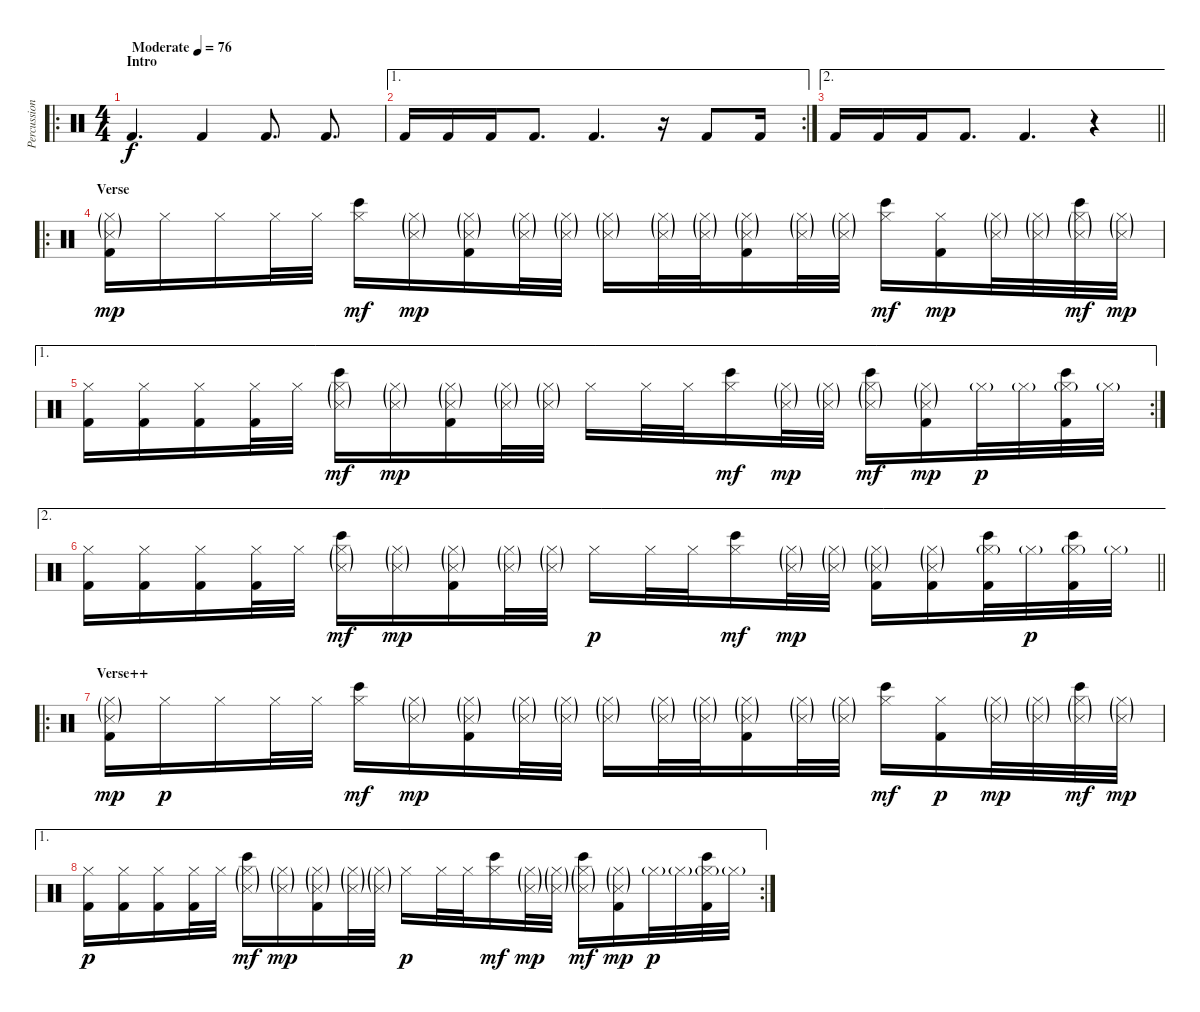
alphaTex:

\track ("Percussion" "Percussion") {instrument percussion}
\staff {score}
\articulation defaults
\ro
\ts (4 4)
\section ("" "Intro")
\tempo (76 "Moderate")
\clef neutral
\ks c "Kick (hit) 2".4{d dy f} "Kick (hit) 2".4 "Kick (hit) 2".8{d} "Kick (hit) 2".8{d}
|
\ae 1
\rc 2 "Kick (hit) 2".16 "Kick (hit) 2".16 "Kick (hit) 2".16 "Kick (hit) 2".8{d} "Kick (hit) 2".4{d}
r.16 "Kick (hit) 2".8 "Kick (hit) 2".16 |
\ae 2
\barLineRight lightlight "Kick (hit) 2".16 "Kick (hit) 2".16 "Kick (hit) 2".16 "Kick (hit) 2".8{d} "Kick (hit) 2".4{d}
r.4 |
\ro
\section ("" "Verse")
("Hi-Hat (closed)"{g} "Snare (side stick) 3"{g} "Kick (hit) 2").16{dy mp} "Hi-Hat (closed)".16 "Hi-Hat (closed)".16 "Hi-Hat (closed)".32 "Hi-Hat (closed)".32 ("Hi-Hat (closed)" "Bongo High (hit)").16{dy mf} ("Hi-Hat (closed)"{g} "Snare (side stick) 3"{g}).16{dy mp} ("Hi-Hat (closed)"{g} "Snare (side stick) 3"{g} "Kick (hit) 2").16 ("Hi-Hat (closed)"{g} "Snare (side stick) 3"{g}).32 ("Hi-Hat (closed)"{g} "Snare (side stick) 3"{g}).32 ("Hi-Hat (closed)"{g} "Snare (side stick) 3"{g}).16 ("Hi-Hat (closed)"{g} "Snare (side stick) 3"{g}).32 ("Hi-Hat (closed)"{g} "Snare (side stick) 3"{g}).32 ("Hi-Hat (closed)"{g} "Snare (side stick) 3"{g} "Kick (hit) 2").16 ("Hi-Hat (closed)"{g} "Snare (side stick) 3"{g}).32 ("Hi-Hat (closed)"{g} "Snare (side stick) 3"{g}).32 ("Hi-Hat (closed)" "Bongo High (hit)").16{dy mf} ("Hi-Hat (closed)" "Kick (hit) 2").16{dy mp} ("Hi-Hat (closed)"{g} "Snare (side stick) 3"{g}).32 ("Hi-Hat (closed)"{g} "Snare (side stick) 3"{g}).32 ("Hi-Hat (closed)"{g} "Snare (side stick) 3"{g} "Bongo High (hit)").32{dy mf} ("Hi-Hat (closed)"{g} "Snare (side stick) 3"{g}).32{dy mp} |
\ae 1
\rc 2
("Hi-Hat (closed)" "Kick (hit) 2").16 ("Hi-Hat (closed)" "Kick (hit) 2").16 ("Hi-Hat (closed)" "Kick (hit) 2").16 ("Hi-Hat (closed)" "Kick (hit) 2").32 "Hi-Hat (closed)".32 ("Hi-Hat (closed)"{g} "Snare (side stick) 3"{g} "Bongo High (hit)").16{dy mf} ("Hi-Hat (closed)"{g} "Snare (side stick) 3"{g}).16{dy mp} ("Hi-Hat (closed)"{g} "Snare (side stick) 3"{g} "Kick (hit) 2").16 ("Hi-Hat (closed)"{g} "Snare (side stick) 3"{g}).32 ("Hi-Hat (closed)"{g} "Snare (side stick) 3"{g}).32 "Hi-Hat (closed)".16 "Hi-Hat (closed)".32 "Hi-Hat (closed)".32 ("Hi-Hat (closed)" "Bongo High (hit)").16{dy mf} ("Hi-Hat (closed)"{g} "Snare (side stick) 3"{g}).32{dy mp} ("Hi-Hat (closed)"{g} "Snare (side stick) 3"{g}).32 ("Hi-Hat (closed)"{g} "Snare (side stick) 3"{g} "Bongo High (hit)").16{dy mf} ("Hi-Hat (closed)"{g} "Snare (side stick) 3"{g} "Kick (hit) 2").16{dy mp} "Hi-Hat (closed)"{g}.32{dy p} "Hi-Hat (closed)"{g}.32 ("Hi-Hat (closed)"{g} "Bongo High (hit)" "Kick (hit) 2").32 "Hi-Hat (closed)"{g}.32 |
\ae 2
\barLineRight lightlight
("Hi-Hat (closed)" "Kick (hit) 2").16 ("Hi-Hat (closed)" "Kick (hit) 2").16 ("Hi-Hat (closed)" "Kick (hit) 2").16 ("Hi-Hat (closed)" "Kick (hit) 2").32 "Hi-Hat (closed)".32 ("Hi-Hat (closed)"{g} "Snare (side stick) 3"{g} "Bongo High (hit)").16{dy mf} ("Hi-Hat (closed)"{g} "Snare (side stick) 3"{g}).16{dy mp} ("Hi-Hat (closed)"{g} "Snare (side stick) 3"{g} "Kick (hit) 2").16 ("Hi-Hat (closed)"{g} "Snare (side stick) 3"{g}).32 ("Hi-Hat (closed)"{g} "Snare (side stick) 3"{g}).32 "Hi-Hat (closed)".16{dy p} "Hi-Hat (closed)".32 "Hi-Hat (closed)".32 ("Hi-Hat (closed)" "Bongo High (hit)").16{dy mf} ("Hi-Hat (closed)"{g} "Snare (side stick) 3"{g}).32{dy mp} ("Hi-Hat (closed)"{g} "Snare (side stick) 3"{g}).32 ("Hi-Hat (closed)"{g} "Snare (side stick) 3"{g} "Kick (hit) 2").16 ("Hi-Hat (closed)"{g} "Snare (side stick) 3"{g} "Kick (hit) 2").16 ("Hi-Hat (closed)"{g} "Bongo High (hit)" "Kick (hit) 2").32 "Hi-Hat (closed)"{g}.32{dy p} ("Hi-Hat (closed)"{g} "Bongo High (hit)" "Kick (hit) 2").32 "Hi-Hat (closed)"{g}.32 |
\ro
\section ("" "Verse++")
("Hi-Hat (closed)"{g} "Snare (side stick) 3"{g} "Kick (hit) 2").16{dy mp} "Hi-Hat (closed)".16{dy p} "Hi-Hat (closed)".16 "Hi-Hat (closed)".32 "Hi-Hat (closed)".32 ("Hi-Hat (closed)" "Bongo High (hit)").16{dy mf} ("Hi-Hat (closed)"{g} "Snare (side stick) 3"{g}).16{dy mp} ("Hi-Hat (closed)"{g} "Snare (side stick) 3"{g} "Kick (hit) 2").16 ("Hi-Hat (closed)"{g} "Snare (side stick) 3"{g}).32 ("Hi-Hat (closed)"{g} "Snare (side stick) 3"{g}).32 ("Hi-Hat (closed)"{g} "Snare (side stick) 3"{g}).16 ("Hi-Hat (closed)"{g} "Snare (side stick) 3"{g}).32 ("Hi-Hat (closed)"{g} "Snare (side stick) 3"{g}).32 ("Hi-Hat (closed)"{g} "Snare (side stick) 3"{g} "Kick (hit) 2").16 ("Hi-Hat (closed)"{g} "Snare (side stick) 3"{g}).32 ("Hi-Hat (closed)"{g} "Snare (side stick) 3"{g}).32 ("Hi-Hat (closed)" "Bongo High (hit)").16{dy mf} ("Hi-Hat (closed)" "Kick (hit) 2").16{dy p} ("Hi-Hat (closed)"{g} "Snare (side stick) 3"{g}).32{dy mp} ("Hi-Hat (closed)"{g} "Snare (side stick) 3"{g}).32 ("Hi-Hat (closed)"{g} "Snare (side stick) 3"{g} "Bongo High (hit)").32{dy mf} ("Hi-Hat (closed)"{g} "Snare (side stick) 3"{g}).32{dy mp} |
\ae 1
\rc 2
("Hi-Hat (closed)" "Kick (hit) 2").16{dy p} ("Hi-Hat (closed)" "Kick (hit) 2").16 ("Hi-Hat (closed)" "Kick (hit) 2").16 ("Hi-Hat (closed)" "Kick (hit) 2").32 "Hi-Hat (closed)".32 ("Hi-Hat (closed)"{g} "Snare (side stick) 3"{g} "Bongo High (hit)").16{dy mf} ("Hi-Hat (closed)"{g} "Snare (side stick) 3"{g}).16{dy mp} ("Hi-Hat (closed)"{g} "Snare (side stick) 3"{g} "Kick (hit) 2").16 ("Hi-Hat (closed)"{g} "Snare (side stick) 3"{g}).32 ("Hi-Hat (closed)"{g} "Snare (side stick) 3"{g}).32 "Hi-Hat (closed)".16{dy p} "Hi-Hat (closed)".32 "Hi-Hat (closed)".32 ("Hi-Hat (closed)" "Bongo High (hit)").16{dy mf} ("Hi-Hat (closed)"{g} "Snare (side stick) 3"{g}).32{dy mp} ("Hi-Hat (closed)"{g} "Snare (side stick) 3"{g}).32 ("Hi-Hat (closed)"{g} "Snare (side stick) 3"{g} "Bongo High (hit)").16{dy mf} ("Hi-Hat (closed)"{g} "Snare (side stick) 3"{g} "Kick (hit) 2").16{dy mp} "Hi-Hat (closed)"{g}.32{dy p} "Hi-Hat (closed)"{g}.32 ("Hi-Hat (closed)"{g} "Bongo High (hit)" "Kick (hit) 2").32 "Hi-Hat (closed)"{g}.32
